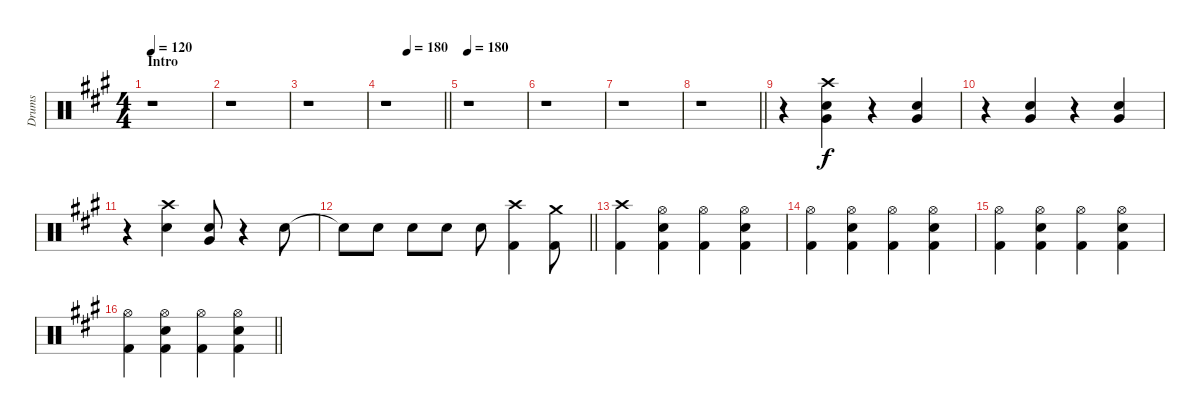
\track ("Drums" "Drums") {instrument percussion}
\staff {score}
\articulation defaults
\ts (4 4)
\section ("" "Intro")
\tempo 120
\clef neutral
\ks a
r.1{dy f} |
r.1 |
r.1 |
\tempo (180 0.375)
\barLineRight lightlight
r.1 |
\tempo 180
r.1 |
r.1 |
r.1 |
\barLineRight lightlight
r.1 |
r.4 ("Electric Snare (hit)" "Very Low Tom (hit)" "Crash high (hit)").4 r.4 ("Electric Snare (hit)" "Very Low Tom (hit)").4 |
r.4 ("Electric Snare (hit)" "Very Low Tom (hit)").4 r.4 ("Electric Snare (hit)" "Very Low Tom (hit)").4 |
r.4 ("Electric Snare (hit)" "Crash high (hit)").4 ("Electric Snare (hit)" "Very Low Tom (hit)").8 r.4 "Electric Snare (hit)".8 |
\barLineRight lightlight "Electric Snare (hit)"{t}.8 "Electric Snare (hit)".8 "Electric Snare (hit)".8 "Electric Snare (hit)".8 "Electric Snare (hit)".8
("Crash high (hit)" "Kick (hit) 2").4 ("Crash medium (hit)" "Kick (hit) 2").8 |
("Crash high (hit)" "Kick (hit) 2").4 ("Hi-Hat (open)" "Electric Snare (hit)" "Kick (hit) 2").4 ("Hi-Hat (open)" "Kick (hit) 2").4 ("Hi-Hat (open)" "Electric Snare (hit)" "Kick (hit) 2").4 |
("Hi-Hat (open)" "Kick (hit) 2").4 ("Hi-Hat (open)" "Electric Snare (hit)" "Kick (hit) 2").4 ("Hi-Hat (open)" "Kick (hit) 2").4 ("Hi-Hat (open)" "Electric Snare (hit)" "Kick (hit) 2").4 |
("Hi-Hat (open)" "Kick (hit) 2").4 ("Hi-Hat (open)" "Electric Snare (hit)" "Kick (hit) 2").4 ("Hi-Hat (open)" "Kick (hit) 2").4 ("Hi-Hat (open)" "Electric Snare (hit)" "Kick (hit) 2").4 |
\barLineRight lightlight
("Hi-Hat (open)" "Kick (hit) 2").4 ("Hi-Hat (open)" "Electric Snare (hit)" "Kick (hit) 2").4 ("Hi-Hat (open)" "Kick (hit) 2").4 ("Hi-Hat (open)" "Electric Snare (hit)" "Kick (hit) 2").4
